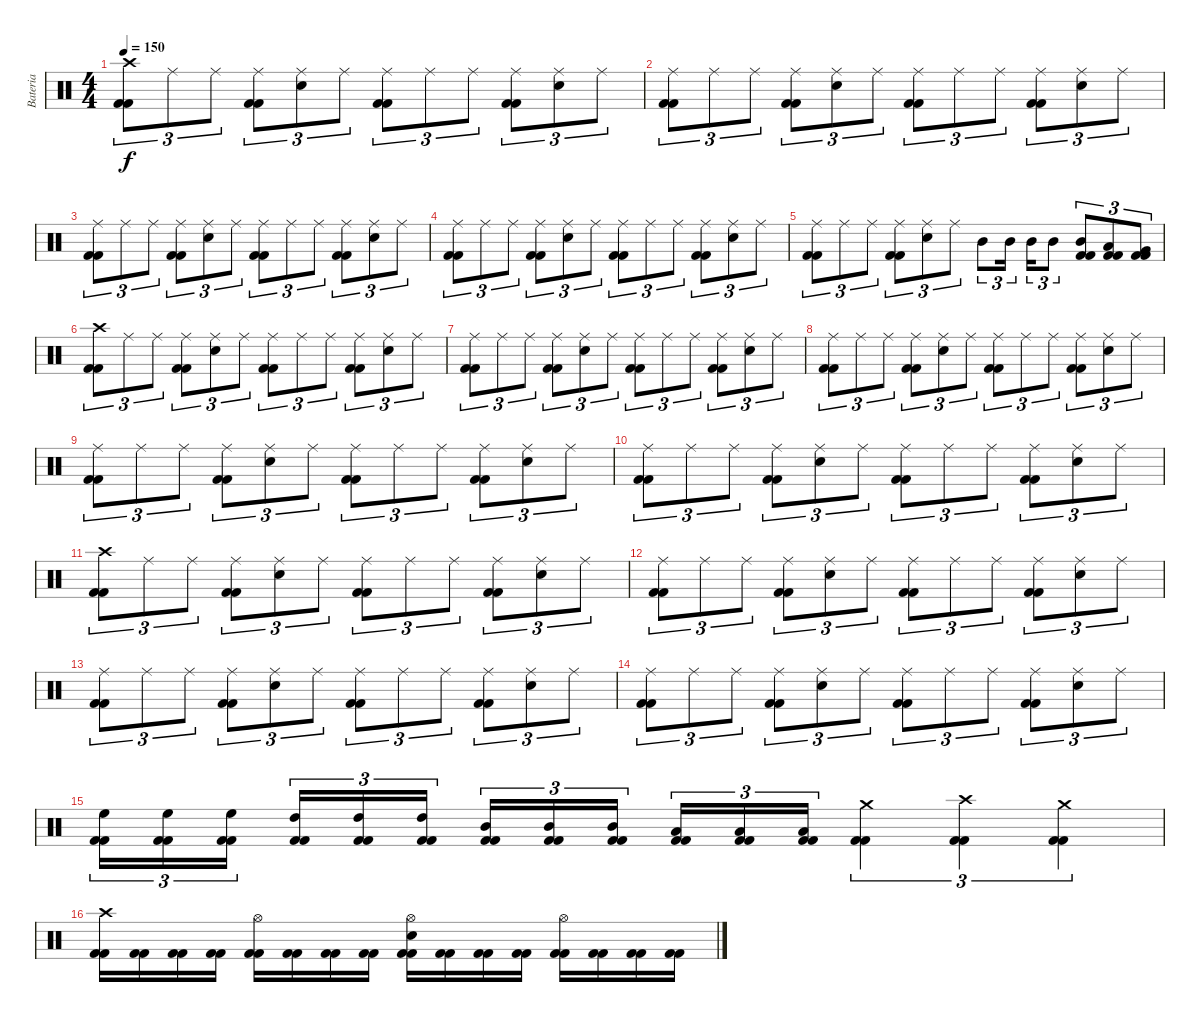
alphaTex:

\track ("Bateria" "Bateria") {instrument percussion}
\staff {score}
\articulation defaults
\ts (4 4)
\tempo 150
\clef neutral
\ks c
("Kick (hit) 2" "Kick (hit) 2" "Crash high (hit)").8{tu (3 2) dy f} "Ride (middle)".8{tu (3 2)} "Ride (middle)".8{tu (3 2)} ("Kick (hit) 2" "Kick (hit) 2" "Ride (middle)").8{tu (3 2)} ("Snare (hit) 2" "Ride (middle)").8{tu (3 2)} "Ride (middle)".8{tu (3 2)} ("Kick (hit) 2" "Kick (hit) 2" "Ride (middle)").8{tu (3 2)} "Ride (middle)".8{tu (3 2)} "Ride (middle)".8{tu (3 2)} ("Kick (hit) 2" "Kick (hit) 2" "Ride (middle)").8{tu (3 2)} ("Snare (hit) 2" "Ride (middle)").8{tu (3 2)} "Ride (middle)".8{tu (3 2)} |
("Kick (hit) 2" "Kick (hit) 2" "Ride (middle)").8{tu (3 2)} "Ride (middle)".8{tu (3 2)} "Ride (middle)".8{tu (3 2)} ("Kick (hit) 2" "Kick (hit) 2" "Ride (middle)").8{tu (3 2)} ("Snare (hit) 2" "Ride (middle)").8{tu (3 2)} "Ride (middle)".8{tu (3 2)} ("Kick (hit) 2" "Kick (hit) 2" "Ride (middle)").8{tu (3 2)} "Ride (middle)".8{tu (3 2)} "Ride (middle)".8{tu (3 2)} ("Kick (hit) 2" "Kick (hit) 2" "Ride (middle)").8{tu (3 2)} ("Snare (hit) 2" "Ride (middle)").8{tu (3 2)} "Ride (middle)".8{tu (3 2)} |
("Kick (hit) 2" "Kick (hit) 2" "Ride (middle)").8{tu (3 2)} "Ride (middle)".8{tu (3 2)} "Ride (middle)".8{tu (3 2)} ("Kick (hit) 2" "Kick (hit) 2" "Ride (middle)").8{tu (3 2)} ("Snare (hit) 2" "Ride (middle)").8{tu (3 2)} "Ride (middle)".8{tu (3 2)} ("Kick (hit) 2" "Kick (hit) 2" "Ride (middle)").8{tu (3 2)} "Ride (middle)".8{tu (3 2)} "Ride (middle)".8{tu (3 2)} ("Kick (hit) 2" "Kick (hit) 2" "Ride (middle)").8{tu (3 2)} ("Snare (hit) 2" "Ride (middle)").8{tu (3 2)} "Ride (middle)".8{tu (3 2)} |
("Kick (hit) 2" "Kick (hit) 2" "Ride (middle)").8{tu (3 2)} "Ride (middle)".8{tu (3 2)} "Ride (middle)".8{tu (3 2)} ("Kick (hit) 2" "Kick (hit) 2" "Ride (middle)").8{tu (3 2)} ("Snare (hit) 2" "Ride (middle)").8{tu (3 2)} "Ride (middle)".8{tu (3 2)} ("Kick (hit) 2" "Kick (hit) 2" "Ride (middle)").8{tu (3 2)} "Ride (middle)".8{tu (3 2)} "Ride (middle)".8{tu (3 2)} ("Kick (hit) 2" "Kick (hit) 2" "Ride (middle)").8{tu (3 2)} ("Snare (hit) 2" "Ride (middle)").8{tu (3 2)} "Ride (middle)".8{tu (3 2)} |
("Kick (hit) 2" "Kick (hit) 2" "Ride (middle)").8{tu (3 2)} "Ride (middle)".8{tu (3 2)} "Ride (middle)".8{tu (3 2)} ("Kick (hit) 2" "Kick (hit) 2" "Ride (middle)").8{tu (3 2)} ("Snare (hit) 2" "Ride (middle)").8{tu (3 2)} "Ride (middle)".8{tu (3 2)} "Mid Tom (hit)".8{tu (3 2)} "Mid Tom (hit)".16{tu (3 2)} "Mid Tom (hit)".16{tu (3 2)} "Mid Tom (hit)".8{tu (3 2)} ("Kick (hit) 2" "Kick (hit) 2" "Mid Tom (hit)").8{tu (3 2)} ("Kick (hit) 2" "Kick (hit) 2" "Low Tom (hit)").8{tu (3 2)} ("Kick (hit) 2" "Kick (hit) 2" "Very Low Tom (hit)").8{tu (3 2)} |
("Kick (hit) 2" "Kick (hit) 2" "Crash high (hit)").8{tu (3 2)} "Ride (middle)".8{tu (3 2)} "Ride (middle)".8{tu (3 2)} ("Kick (hit) 2" "Kick (hit) 2" "Ride (middle)").8{tu (3 2)} ("Snare (hit) 2" "Ride (middle)").8{tu (3 2)} "Ride (middle)".8{tu (3 2)} ("Kick (hit) 2" "Kick (hit) 2" "Ride (middle)").8{tu (3 2)} "Ride (middle)".8{tu (3 2)} "Ride (middle)".8{tu (3 2)} ("Kick (hit) 2" "Kick (hit) 2" "Ride (middle)").8{tu (3 2)} ("Snare (hit) 2" "Ride (middle)").8{tu (3 2)} "Ride (middle)".8{tu (3 2)} |
("Kick (hit) 2" "Kick (hit) 2" "Ride (middle)").8{tu (3 2)} "Ride (middle)".8{tu (3 2)} "Ride (middle)".8{tu (3 2)} ("Kick (hit) 2" "Kick (hit) 2" "Ride (middle)").8{tu (3 2)} ("Snare (hit) 2" "Ride (middle)").8{tu (3 2)} "Ride (middle)".8{tu (3 2)} ("Kick (hit) 2" "Kick (hit) 2" "Ride (middle)").8{tu (3 2)} "Ride (middle)".8{tu (3 2)} "Ride (middle)".8{tu (3 2)} ("Kick (hit) 2" "Kick (hit) 2" "Ride (middle)").8{tu (3 2)} ("Snare (hit) 2" "Ride (middle)").8{tu (3 2)} "Ride (middle)".8{tu (3 2)} |
("Kick (hit) 2" "Kick (hit) 2" "Ride (middle)").8{tu (3 2)} "Ride (middle)".8{tu (3 2)} "Ride (middle)".8{tu (3 2)} ("Kick (hit) 2" "Kick (hit) 2" "Ride (middle)").8{tu (3 2)} ("Snare (hit) 2" "Ride (middle)").8{tu (3 2)} "Ride (middle)".8{tu (3 2)} ("Kick (hit) 2" "Kick (hit) 2" "Ride (middle)").8{tu (3 2)} "Ride (middle)".8{tu (3 2)} "Ride (middle)".8{tu (3 2)} ("Kick (hit) 2" "Kick (hit) 2" "Ride (middle)").8{tu (3 2)} ("Snare (hit) 2" "Ride (middle)").8{tu (3 2)} "Ride (middle)".8{tu (3 2)} |
("Kick (hit) 2" "Kick (hit) 2" "Ride (middle)").8{tu (3 2)} "Ride (middle)".8{tu (3 2)} "Ride (middle)".8{tu (3 2)} ("Kick (hit) 2" "Kick (hit) 2" "Ride (middle)").8{tu (3 2)} ("Snare (hit) 2" "Ride (middle)").8{tu (3 2)} "Ride (middle)".8{tu (3 2)} ("Kick (hit) 2" "Kick (hit) 2" "Ride (middle)").8{tu (3 2)} "Ride (middle)".8{tu (3 2)} "Ride (middle)".8{tu (3 2)} ("Kick (hit) 2" "Kick (hit) 2" "Ride (middle)").8{tu (3 2)} ("Snare (hit) 2" "Ride (middle)").8{tu (3 2)} "Ride (middle)".8{tu (3 2)} |
("Kick (hit) 2" "Kick (hit) 2" "Ride (middle)").8{tu (3 2)} "Ride (middle)".8{tu (3 2)} "Ride (middle)".8{tu (3 2)} ("Kick (hit) 2" "Kick (hit) 2" "Ride (middle)").8{tu (3 2)} ("Snare (hit) 2" "Ride (middle)").8{tu (3 2)} "Ride (middle)".8{tu (3 2)} ("Kick (hit) 2" "Kick (hit) 2" "Ride (middle)").8{tu (3 2)} "Ride (middle)".8{tu (3 2)} "Ride (middle)".8{tu (3 2)} ("Kick (hit) 2" "Kick (hit) 2" "Ride (middle)").8{tu (3 2)} ("Snare (hit) 2" "Ride (middle)").8{tu (3 2)} "Ride (middle)".8{tu (3 2)} |
("Kick (hit) 2" "Kick (hit) 2" "Crash high (hit)").8{tu (3 2)} "Ride (middle)".8{tu (3 2)} "Ride (middle)".8{tu (3 2)} ("Kick (hit) 2" "Kick (hit) 2" "Ride (middle)").8{tu (3 2)} ("Snare (hit) 2" "Ride (middle)").8{tu (3 2)} "Ride (middle)".8{tu (3 2)} ("Kick (hit) 2" "Kick (hit) 2" "Ride (middle)").8{tu (3 2)} "Ride (middle)".8{tu (3 2)} "Ride (middle)".8{tu (3 2)} ("Kick (hit) 2" "Kick (hit) 2" "Ride (middle)").8{tu (3 2)} ("Snare (hit) 2" "Ride (middle)").8{tu (3 2)} "Ride (middle)".8{tu (3 2)} |
("Kick (hit) 2" "Kick (hit) 2" "Ride (middle)").8{tu (3 2)} "Ride (middle)".8{tu (3 2)} "Ride (middle)".8{tu (3 2)} ("Kick (hit) 2" "Kick (hit) 2" "Ride (middle)").8{tu (3 2)} ("Snare (hit) 2" "Ride (middle)").8{tu (3 2)} "Ride (middle)".8{tu (3 2)} ("Kick (hit) 2" "Kick (hit) 2" "Ride (middle)").8{tu (3 2)} "Ride (middle)".8{tu (3 2)} "Ride (middle)".8{tu (3 2)} ("Kick (hit) 2" "Kick (hit) 2" "Ride (middle)").8{tu (3 2)} ("Snare (hit) 2" "Ride (middle)").8{tu (3 2)} "Ride (middle)".8{tu (3 2)} |
("Kick (hit) 2" "Kick (hit) 2" "Ride (middle)").8{tu (3 2)} "Ride (middle)".8{tu (3 2)} "Ride (middle)".8{tu (3 2)} ("Kick (hit) 2" "Kick (hit) 2" "Ride (middle)").8{tu (3 2)} ("Snare (hit) 2" "Ride (middle)").8{tu (3 2)} "Ride (middle)".8{tu (3 2)} ("Kick (hit) 2" "Kick (hit) 2" "Ride (middle)").8{tu (3 2)} "Ride (middle)".8{tu (3 2)} "Ride (middle)".8{tu (3 2)} ("Kick (hit) 2" "Kick (hit) 2" "Ride (middle)").8{tu (3 2)} ("Snare (hit) 2" "Ride (middle)").8{tu (3 2)} "Ride (middle)".8{tu (3 2)} |
("Kick (hit) 2" "Kick (hit) 2" "Ride (middle)").8{tu (3 2)} "Ride (middle)".8{tu (3 2)} "Ride (middle)".8{tu (3 2)} ("Kick (hit) 2" "Kick (hit) 2" "Ride (middle)").8{tu (3 2)} ("Snare (hit) 2" "Ride (middle)").8{tu (3 2)} "Ride (middle)".8{tu (3 2)} ("Kick (hit) 2" "Kick (hit) 2" "Ride (middle)").8{tu (3 2)} "Ride (middle)".8{tu (3 2)} "Ride (middle)".8{tu (3 2)} ("Kick (hit) 2" "Kick (hit) 2" "Ride (middle)").8{tu (3 2)} ("Snare (hit) 2" "Ride (middle)").8{tu (3 2)} "Ride (middle)".8{tu (3 2)} |
("Kick (hit) 2" "Kick (hit) 2" "High Floor Tom (hit)").16{tu (3 2)} ("Kick (hit) 2" "Kick (hit) 2" "High Floor Tom (hit)").16{tu (3 2)} ("Kick (hit) 2" "Kick (hit) 2" "High Floor Tom (hit)").16{tu (3 2)} ("Kick (hit) 2" "Kick (hit) 2" "High Tom (hit)").16{tu (3 2)} ("Kick (hit) 2" "Kick (hit) 2" "High Tom (hit)").16{tu (3 2)} ("Kick (hit) 2" "Kick (hit) 2" "High Tom (hit)").16{tu (3 2)} ("Kick (hit) 2" "Kick (hit) 2" "Mid Tom (hit)").16{tu (3 2)} ("Kick (hit) 2" "Kick (hit) 2" "Mid Tom (hit)").16{tu (3 2)} ("Kick (hit) 2" "Kick (hit) 2" "Mid Tom (hit)").16{tu (3 2)} ("Kick (hit) 2" "Kick (hit) 2" "Low Tom (hit)").16{tu (3 2)} ("Kick (hit) 2" "Kick (hit) 2" "Low Tom (hit)").16{tu (3 2)} ("Kick (hit) 2" "Kick (hit) 2" "Low Tom (hit)").16{tu (3 2)} ("Kick (hit) 2" "Kick (hit) 2" "Crash medium (hit)").4{tu (3 2)} ("Kick (hit) 2" "Kick (hit) 2" "Crash high (hit)").4{tu (3 2)} ("Kick (hit) 2" "Kick (hit) 2" "Crash medium (hit)").4{tu (3 2)} |
("Kick (hit) 2" "Kick (hit) 2" "Crash high (hit)").16 ("Kick (hit) 2" "Kick (hit) 2").16 ("Kick (hit) 2" "Kick (hit) 2").16 ("Kick (hit) 2" "Kick (hit) 2").16 ("Kick (hit) 2" "Kick (hit) 2" "Hi-Hat (open)").16 ("Kick (hit) 2" "Kick (hit) 2").16 ("Kick (hit) 2" "Kick (hit) 2").16 ("Kick (hit) 2" "Kick (hit) 2").16 ("Kick (hit) 2" "Kick (hit) 2" "Snare (hit) 2" "Hi-Hat (open)").16 ("Kick (hit) 2" "Kick (hit) 2").16 ("Kick (hit) 2" "Kick (hit) 2").16 ("Kick (hit) 2" "Kick (hit) 2").16 ("Kick (hit) 2" "Kick (hit) 2" "Hi-Hat (open)").16 ("Kick (hit) 2" "Kick (hit) 2").16 ("Kick (hit) 2" "Kick (hit) 2").16 ("Kick (hit) 2" "Kick (hit) 2").16
